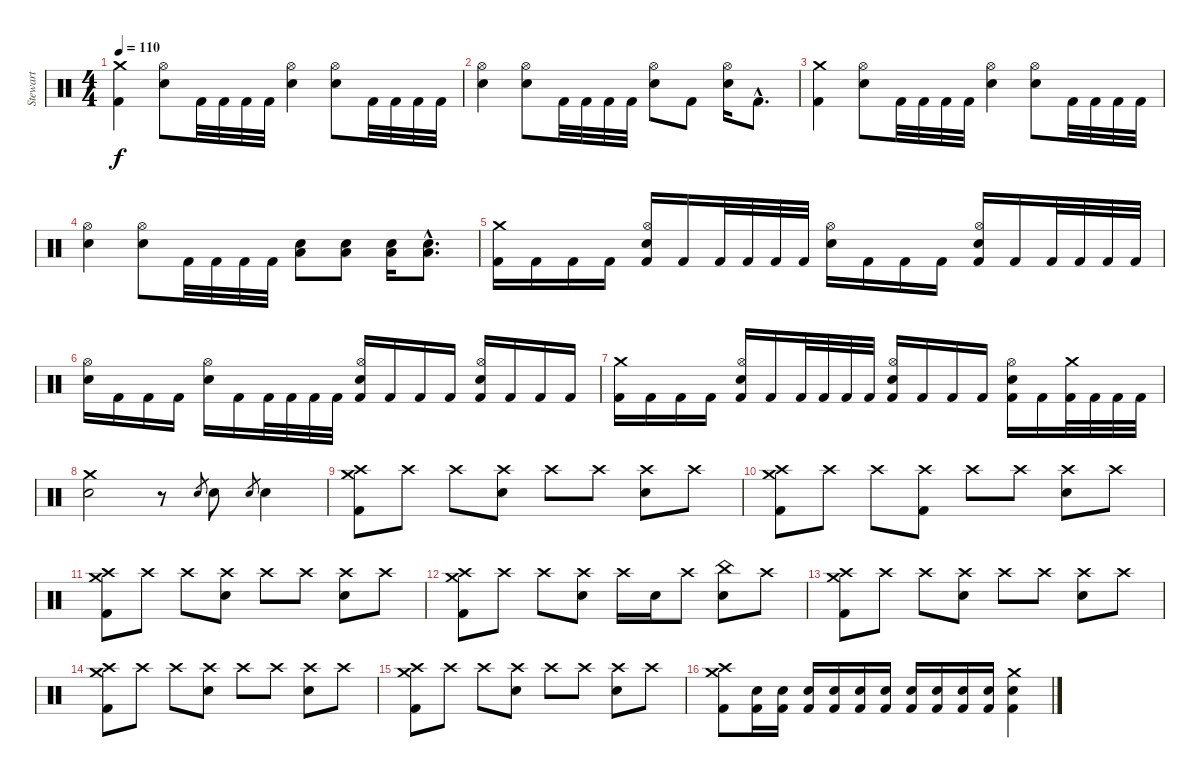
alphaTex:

\track ("Stewart" "Stewart") {instrument percussion}
\staff {score}
\articulation defaults
\ts (4 4)
\tempo 110
\clef neutral
\ks c
("Crash medium (hit)" "Kick (hit) 2").4{dy f} ("Hi-Hat (open)" "Electric Snare (hit)").8 "Kick (hit) 2".32 "Kick (hit) 2".32 "Kick (hit) 2".32 "Kick (hit) 2".32 ("Hi-Hat (open)" "Electric Snare (hit)").4 ("Hi-Hat (open)" "Electric Snare (hit)").8 "Kick (hit) 2".32 "Kick (hit) 2".32 "Kick (hit) 2".32 "Kick (hit) 2".32 |
("Hi-Hat (open)" "Electric Snare (hit)").4 ("Hi-Hat (open)" "Electric Snare (hit)").8 "Kick (hit) 2".32 "Kick (hit) 2".32 "Kick (hit) 2".32 "Kick (hit) 2".32 ("Hi-Hat (open)" "Electric Snare (hit)").8 "Kick (hit) 2".8 ("Hi-Hat (open)" "Electric Snare (hit)").16 "Kick (hit) 2"{hac}.8{d} |
("Crash medium (hit)" "Kick (hit) 2").4 ("Hi-Hat (open)" "Electric Snare (hit)").8 "Kick (hit) 2".32 "Kick (hit) 2".32 "Kick (hit) 2".32 "Kick (hit) 2".32 ("Hi-Hat (open)" "Electric Snare (hit)").4 ("Hi-Hat (open)" "Electric Snare (hit)").8 "Kick (hit) 2".32 "Kick (hit) 2".32 "Kick (hit) 2".32 "Kick (hit) 2".32 |
("Hi-Hat (open)" "Electric Snare (hit)").4 ("Hi-Hat (open)" "Electric Snare (hit)").8 "Kick (hit) 2".32 "Kick (hit) 2".32 "Kick (hit) 2".32 "Kick (hit) 2".32 ("Snare (hit) 2" "Low Tom (hit)").8 ("Snare (hit) 2" "Low Tom (hit)").8 ("Snare (hit) 2" "Low Tom (hit)").16 ("Snare (hit) 2"{hac} "Low Tom (hit)"{hac}).8{d} |
("Crash medium (hit)" "Kick (hit) 2").16 "Kick (hit) 2".16 "Kick (hit) 2".16 "Kick (hit) 2".16 ("Hi-Hat (open)" "Electric Snare (hit)" "Kick (hit) 2").16 "Kick (hit) 2".16 "Kick (hit) 2".32 "Kick (hit) 2".32 "Kick (hit) 2".32 "Kick (hit) 2".32 ("Hi-Hat (open)" "Electric Snare (hit)").16 "Kick (hit) 2".16 "Kick (hit) 2".16 "Kick (hit) 2".16 ("Hi-Hat (open)" "Electric Snare (hit)" "Kick (hit) 2").16 "Kick (hit) 2".16 "Kick (hit) 2".32 "Kick (hit) 2".32 "Kick (hit) 2".32 "Kick (hit) 2".32 |
("Hi-Hat (open)" "Electric Snare (hit)").16 "Kick (hit) 2".16 "Kick (hit) 2".16 "Kick (hit) 2".16 ("Hi-Hat (open)" "Electric Snare (hit)").16 "Kick (hit) 2".16 "Kick (hit) 2".32 "Kick (hit) 2".32 "Kick (hit) 2".32 "Kick (hit) 2".32 ("Hi-Hat (open)" "Electric Snare (hit)" "Kick (hit) 2").16 "Kick (hit) 2".16 "Kick (hit) 2".16 "Kick (hit) 2".16 ("Hi-Hat (open)" "Electric Snare (hit)" "Kick (hit) 2").16 "Kick (hit) 2".16 "Kick (hit) 2".16 "Kick (hit) 2".16 |
("Crash medium (hit)" "Kick (hit) 2").16 "Kick (hit) 2".16 "Kick (hit) 2".16 "Kick (hit) 2".16 ("Hi-Hat (open)" "Electric Snare (hit)" "Kick (hit) 2").16 "Kick (hit) 2".16 "Kick (hit) 2".32 "Kick (hit) 2".32 "Kick (hit) 2".32 "Kick (hit) 2".32 ("Hi-Hat (open)" "Electric Snare (hit)" "Kick (hit) 2").16 "Kick (hit) 2".16 "Kick (hit) 2".16 "Kick (hit) 2".16 ("Hi-Hat (open)" "Electric Snare (hit)" "Kick (hit) 2").16 "Kick (hit) 2".16 ("Crash medium (hit)" "Kick (hit) 2").32 "Kick (hit) 2".32 "Kick (hit) 2".32 "Kick (hit) 2".32 |
("Crash medium (hit)" "Electric Snare (hit)").2 r.8 "Electric Snare (hit)".8{gr} "Electric Snare (hit)".8 "Electric Snare (hit)".8{gr} "Electric Snare (hit)".4 |
("Crash high (hit)" "Crash medium (hit)" "Kick (hit) 2").8 "Crash high (hit)".8 "Crash high (hit)".8 ("Crash high (hit)" "Electric Snare (hit)").8 "Crash high (hit)".8 "Crash high (hit)".8 ("Crash high (hit)" "Electric Snare (hit)").8 "Crash high (hit)".8 |
("Crash high (hit)" "Crash medium (hit)" "Kick (hit) 2").8 "Crash high (hit)".8 "Crash high (hit)".8 ("Crash high (hit)" "Kick (hit) 2").8 "Crash high (hit)".8 "Crash high (hit)".8 ("Crash high (hit)" "Electric Snare (hit)").8 "Crash high (hit)".8 |
("Crash high (hit)" "Crash medium (hit)" "Kick (hit) 2").8 "Crash high (hit)".8 "Crash high (hit)".8 ("Crash high (hit)" "Electric Snare (hit)").8 "Crash high (hit)".8 "Crash high (hit)".8 ("Crash high (hit)" "Electric Snare (hit)").8 "Crash high (hit)".8 |
("Crash high (hit)" "Crash medium (hit)" "Kick (hit) 2").8 "Crash high (hit)".8 "Crash high (hit)".8 ("Crash high (hit)" "Electric Snare (hit)").8 "Crash high (hit)".16 "Electric Snare (hit)".16 "Crash high (hit)".8 ("China (hit)" "Electric Snare (hit)").8 "Crash high (hit)".8 |
("Crash high (hit)" "Crash medium (hit)" "Kick (hit) 2").8 "Crash high (hit)".8 "Crash high (hit)".8 ("Crash high (hit)" "Electric Snare (hit)").8 "Crash high (hit)".8 "Crash high (hit)".8 ("Crash high (hit)" "Electric Snare (hit)").8 "Crash high (hit)".8 |
("Crash high (hit)" "Crash medium (hit)" "Kick (hit) 2").8 "Crash high (hit)".8 "Crash high (hit)".8 ("Crash high (hit)" "Electric Snare (hit)").8 "Crash high (hit)".8 "Crash high (hit)".8 ("Crash high (hit)" "Electric Snare (hit)").8 "Crash high (hit)".8 |
("Crash high (hit)" "Crash medium (hit)" "Kick (hit) 2").8 "Crash high (hit)".8 "Crash high (hit)".8 ("Crash high (hit)" "Electric Snare (hit)").8 "Crash high (hit)".8 "Crash high (hit)".8 ("Crash high (hit)" "Electric Snare (hit)").8 "Crash high (hit)".8 |
("Crash high (hit)" "Crash medium (hit)" "Kick (hit) 2").8 ("Electric Snare (hit)" "Kick (hit) 2").16 ("Electric Snare (hit)" "Kick (hit) 2").16 ("Electric Snare (hit)" "Kick (hit) 2").16 ("Electric Snare (hit)" "Kick (hit) 2").16 ("Electric Snare (hit)" "Kick (hit) 2").16 ("Electric Snare (hit)" "Kick (hit) 2").16 ("Electric Snare (hit)" "Kick (hit) 2").16 ("Electric Snare (hit)" "Kick (hit) 2").16 ("Electric Snare (hit)" "Kick (hit) 2").16 ("Electric Snare (hit)" "Kick (hit) 2").16 ("Crash medium (hit)" "Electric Snare (hit)" "Kick (hit) 2").4
